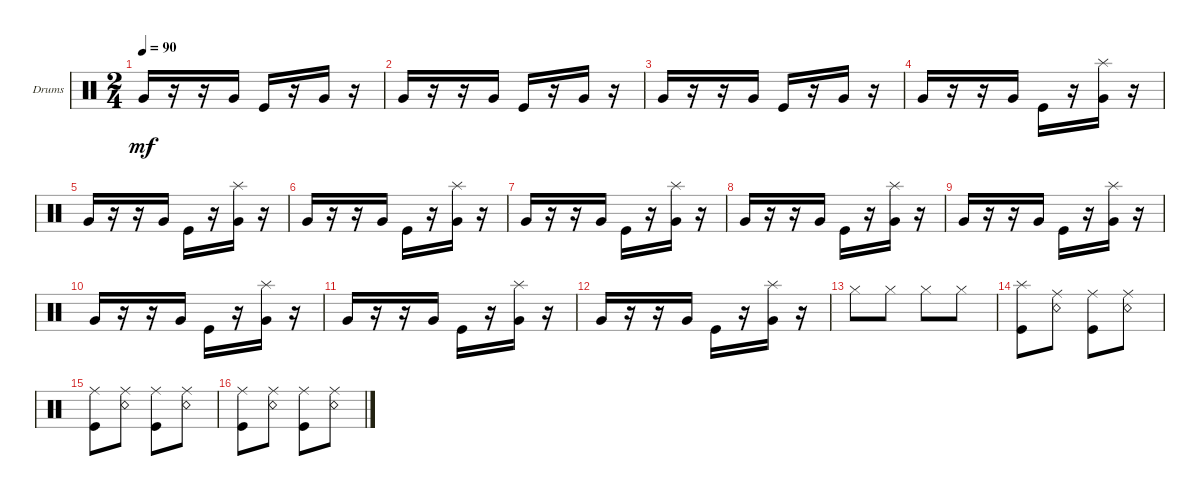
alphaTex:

\defaultSystemsLayout 4
\bracketExtendMode groupsimilarinstruments
\firstSystemTrackNameOrientation horizontal
\otherSystemsTrackNameOrientation horizontal
\track ("Drumkit" "Drums") {instrument percussion}
\staff {score}
\articulation defaults
\ts (2 4)
\tempo 90
\clef neutral
\scale
0.333333
\ks c "Very Low Tom (hit)".16{dy mf}
r.16 r.16 "Very Low Tom (hit)".16 "Kick (hit)".16 r.16 "Very Low Tom (hit)".16 r.16 |
\scale
0.333333 "Very Low Tom (hit)".16 r.16 r.16 "Very Low Tom (hit)".16 "Kick (hit)".16 r.16 "Very Low Tom (hit)".16 r.16 |
\scale
0.333333 "Very Low Tom (hit)".16 r.16 r.16 "Very Low Tom (hit)".16 "Kick (hit)".16 r.16 "Very Low Tom (hit)".16 r.16 |
\scale
0.333333 "Very Low Tom (hit)".16 r.16 r.16 "Very Low Tom (hit)".16 "Kick (hit)".16 r.16 ("Very Low Tom (hit)" "Splash (hit)").16 r.16 |
\scale
0.333333 "Very Low Tom (hit)".16 r.16 r.16 "Very Low Tom (hit)".16 "Kick (hit)".16 r.16 ("Very Low Tom (hit)" "Splash (hit)").16 r.16 |
\scale
0.333333 "Very Low Tom (hit)".16 r.16 r.16 "Very Low Tom (hit)".16 "Kick (hit)".16 r.16 ("Very Low Tom (hit)" "Splash (hit)").16 r.16 |
\scale
0.333333 "Very Low Tom (hit)".16 r.16 r.16 "Very Low Tom (hit)".16 "Kick (hit)".16 r.16 ("Very Low Tom (hit)" "Splash (hit)").16 r.16 |
\scale
0.333333 "Very Low Tom (hit)".16 r.16 r.16 "Very Low Tom (hit)".16 "Kick (hit)".16 r.16 ("Very Low Tom (hit)" "Splash (hit)").16 r.16 |
\scale
0.333333 "Very Low Tom (hit)".16 r.16 r.16 "Very Low Tom (hit)".16 "Kick (hit)".16 r.16 ("Very Low Tom (hit)" "Splash (hit)").16 r.16 |
\scale
0.333333 "Very Low Tom (hit)".16 r.16 r.16 "Very Low Tom (hit)".16 "Kick (hit)".16 r.16 ("Very Low Tom (hit)" "Splash (hit)").16 r.16 |
\scale
0.333333 "Very Low Tom (hit)".16 r.16 r.16 "Very Low Tom (hit)".16 "Kick (hit)".16 r.16 ("Very Low Tom (hit)" "Splash (hit)").16 r.16 |
\scale
0.333333 "Very Low Tom (hit)".16 r.16 r.16 "Very Low Tom (hit)".16 "Kick (hit)".16 r.16 ("Very Low Tom (hit)" "Splash (hit)").16 r.16 |
"Hi-Hat (closed)".8 "Hi-Hat (closed)".8 "Hi-Hat (closed)".8 "Hi-Hat (closed)".8 |
("Kick (hit)" "Splash (hit)").8 ("Ride (middle)" "Snare (rim shot)").8 ("Ride (middle)" "Kick (hit)").8 ("Ride (middle)" "Snare (rim shot)").8 |
("Kick (hit)" "Ride (middle)").8 ("Ride (middle)" "Snare (rim shot)").8 ("Ride (middle)" "Kick (hit)").8 ("Ride (middle)" "Snare (rim shot)").8 |
("Kick (hit)" "Ride (middle)").8 ("Ride (middle)" "Snare (rim shot)").8 ("Ride (middle)" "Kick (hit)").8 ("Ride (middle)" "Snare (rim shot)").8
